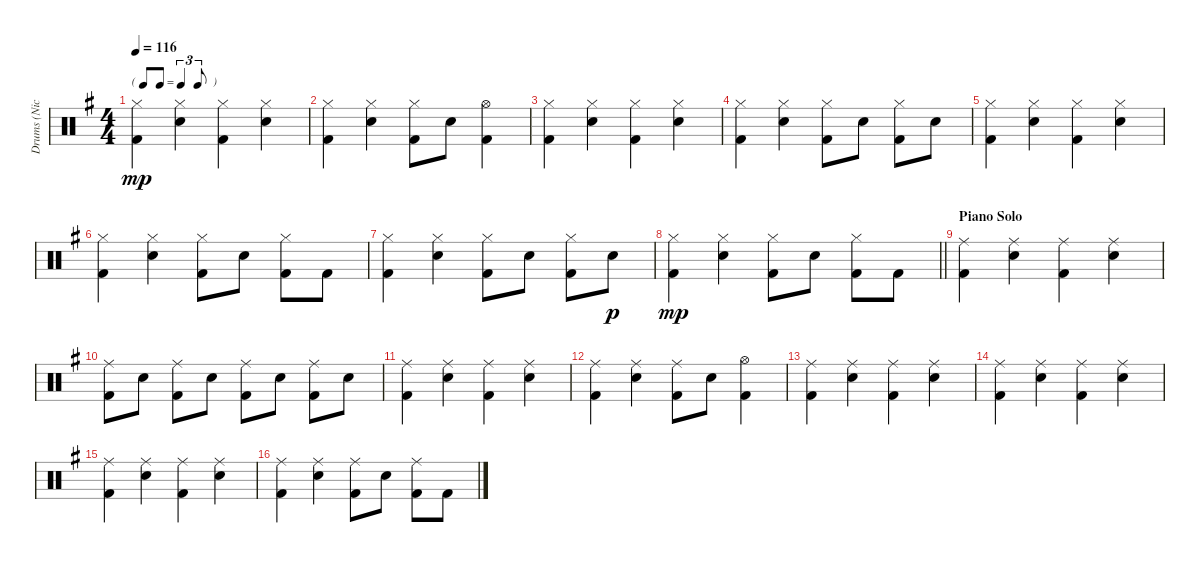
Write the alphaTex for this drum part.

\track ("Drums (Nick Mason)" "Drums (Nic") {instrument percussion}
\staff {score}
\articulation defaults
\ts (4 4)
\tf triplet8th
\tempo 116
\clef neutral
\ks g
("Hi-Hat (closed)" "Kick (hit) 2").4{dy mp} ("Hi-Hat (closed)" "Snare (hit) 2").4 ("Hi-Hat (closed)" "Kick (hit) 2").4 ("Hi-Hat (closed)" "Snare (hit) 2").4 |
("Hi-Hat (closed)" "Kick (hit) 2").4 ("Hi-Hat (closed)" "Snare (hit) 2").4 ("Hi-Hat (closed)" "Kick (hit) 2").8 "Snare (hit) 2".8 ("Hi-Hat (open)" "Kick (hit) 2").4 |
("Hi-Hat (closed)" "Kick (hit) 2").4 ("Hi-Hat (closed)" "Snare (hit) 2").4 ("Hi-Hat (closed)" "Kick (hit) 2").4 ("Hi-Hat (closed)" "Snare (hit) 2").4 |
("Hi-Hat (closed)" "Kick (hit) 2").4 ("Hi-Hat (closed)" "Snare (hit) 2").4 ("Hi-Hat (closed)" "Kick (hit) 2").8 "Snare (hit) 2".8 ("Hi-Hat (closed)" "Kick (hit) 2").8 "Snare (hit) 2".8 |
("Hi-Hat (closed)" "Kick (hit) 2").4 ("Hi-Hat (closed)" "Snare (hit) 2").4 ("Hi-Hat (closed)" "Kick (hit) 2").4 ("Hi-Hat (closed)" "Snare (hit) 2").4 |
("Hi-Hat (closed)" "Kick (hit) 2").4 ("Hi-Hat (closed)" "Snare (hit) 2").4 ("Hi-Hat (closed)" "Kick (hit) 2").8 "Snare (hit) 2".8 ("Hi-Hat (closed)" "Kick (hit) 2").8 "Kick (hit) 2".8 |
("Hi-Hat (closed)" "Kick (hit) 2").4 ("Hi-Hat (closed)" "Snare (hit) 2").4 ("Hi-Hat (closed)" "Kick (hit) 2").8 "Snare (hit) 2".8 ("Hi-Hat (closed)" "Kick (hit) 2").8 "Snare (hit) 2".8{dy p} |
\barLineRight lightlight
("Hi-Hat (closed)" "Kick (hit) 2").4{dy mp} ("Hi-Hat (closed)" "Snare (hit) 2").4 ("Hi-Hat (closed)" "Kick (hit) 2").8 "Snare (hit) 2".8 ("Hi-Hat (closed)" "Kick (hit) 2").8 "Kick (hit) 2".8 |
\section ("" "Piano Solo")
("Ride (middle)" "Kick (hit) 2").4 ("Ride (middle)" "Snare (hit) 2").4 ("Ride (middle)" "Kick (hit) 2").4 ("Ride (middle)" "Snare (hit) 2").4 |
("Ride (middle)" "Kick (hit) 2").8 "Snare (hit) 2".8 ("Ride (middle)" "Kick (hit) 2").8 "Snare (hit) 2".8 ("Ride (middle)" "Kick (hit) 2").8 "Snare (hit) 2".8 ("Ride (middle)" "Kick (hit) 2").8 "Snare (hit) 2".8 |
("Ride (middle)" "Kick (hit) 2").4 ("Ride (middle)" "Snare (hit) 2").4 ("Ride (middle)" "Kick (hit) 2").4 ("Ride (middle)" "Snare (hit) 2").4 |
("Ride (middle)" "Kick (hit) 2").4 ("Ride (middle)" "Snare (hit) 2").4 ("Ride (middle)" "Kick (hit) 2").8 "Snare (hit) 2".8 ("Hi-Hat (open)" "Kick (hit) 2").4 |
("Ride (middle)" "Kick (hit) 2").4 ("Ride (middle)" "Snare (hit) 2").4 ("Ride (middle)" "Kick (hit) 2").4 ("Ride (middle)" "Snare (hit) 2").4 |
("Ride (middle)" "Kick (hit) 2").4 ("Ride (middle)" "Snare (hit) 2").4 ("Ride (middle)" "Kick (hit) 2").4 ("Ride (middle)" "Snare (hit) 2").4 |
("Ride (middle)" "Kick (hit) 2").4 ("Ride (middle)" "Snare (hit) 2").4 ("Ride (middle)" "Kick (hit) 2").4 ("Ride (middle)" "Snare (hit) 2").4 |
("Ride (middle)" "Kick (hit) 2").4 ("Ride (middle)" "Snare (hit) 2").4 ("Ride (middle)" "Kick (hit) 2").8 "Snare (hit) 2".8 ("Ride (middle)" "Kick (hit) 2").8 "Kick (hit) 2".8
